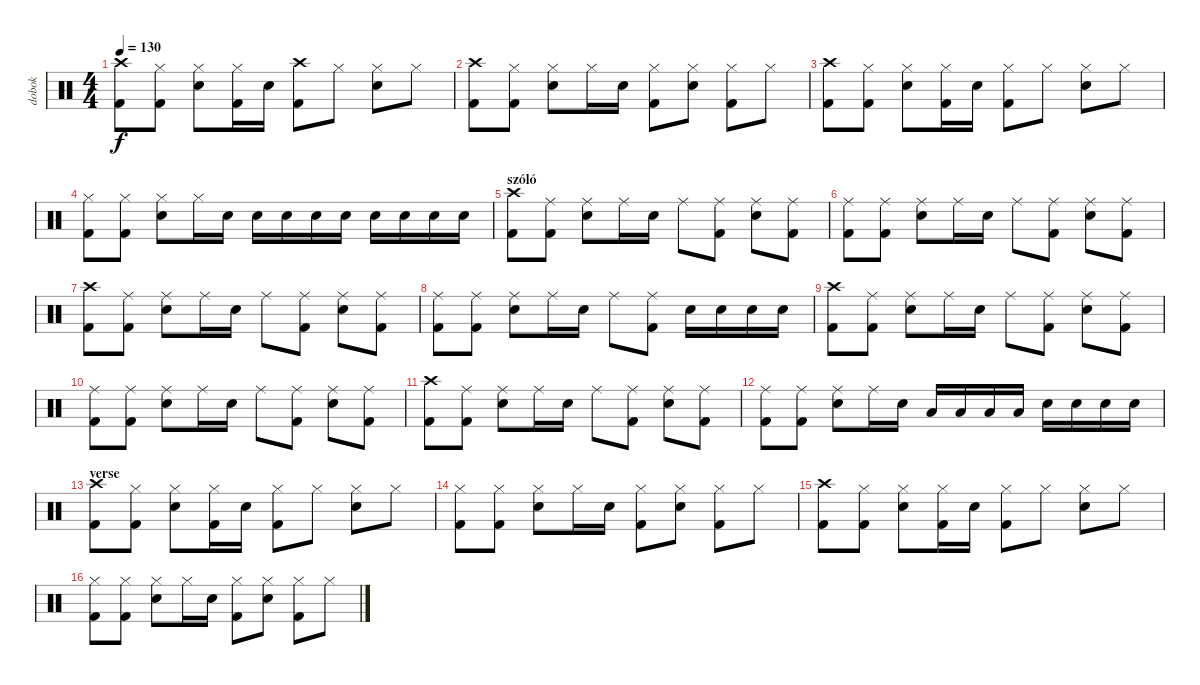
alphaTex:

\track ("dobok" "dobok") {instrument percussion}
\staff {score}
\articulation defaults
\ts (4 4)
\tempo 130
\clef neutral
\ks c
("Crash high (hit)" "Kick (hit) 2").8{dy f} ("Hi-Hat (closed)" "Kick (hit) 2").8 ("Hi-Hat (closed)" "Snare (hit) 2").8 ("Hi-Hat (closed)" "Kick (hit) 2").16 "Snare (hit) 2".16 ("Crash high (hit)" "Kick (hit) 2").8 "Hi-Hat (closed)".8 ("Hi-Hat (closed)" "Snare (hit) 2").8 "Hi-Hat (closed)".8 |
("Crash high (hit)" "Kick (hit) 2").8 ("Hi-Hat (closed)" "Kick (hit) 2").8 ("Hi-Hat (closed)" "Snare (hit) 2").8 "Hi-Hat (closed)".16 "Snare (hit) 2".16 ("Hi-Hat (closed)" "Kick (hit) 2").8 ("Hi-Hat (closed)" "Snare (hit) 2").8 ("Hi-Hat (closed)" "Kick (hit) 2").8 "Hi-Hat (closed)".8 |
("Crash high (hit)" "Kick (hit) 2").8 ("Hi-Hat (closed)" "Kick (hit) 2").8 ("Hi-Hat (closed)" "Snare (hit) 2").8 ("Hi-Hat (closed)" "Kick (hit) 2").16 "Snare (hit) 2".16 ("Hi-Hat (closed)" "Kick (hit) 2").8 "Hi-Hat (closed)".8 ("Hi-Hat (closed)" "Snare (hit) 2").8 "Hi-Hat (closed)".8 |
("Hi-Hat (closed)" "Kick (hit) 2").8 ("Hi-Hat (closed)" "Kick (hit) 2").8 ("Hi-Hat (closed)" "Snare (hit) 2").8 "Hi-Hat (closed)".16 "Snare (hit) 2".16 "Snare (hit) 2".16 "Snare (hit) 2".16 "Snare (hit) 2".16 "Snare (hit) 2".16 "Snare (hit) 2".16 "Snare (hit) 2".16 "Snare (hit) 2".16 "Snare (hit) 2".16 |
\section ("" "szóló")
("Crash high (hit)" "Kick (hit) 2").8 ("Ride (middle)" "Kick (hit) 2").8 ("Ride (middle)" "Snare (hit) 2").8 "Ride (middle)".16 "Snare (hit) 2".16 "Ride (middle)".8 ("Ride (middle)" "Kick (hit) 2").8 ("Ride (middle)" "Snare (hit) 2").8 ("Ride (middle)" "Kick (hit) 2").8 |
("Ride (middle)" "Kick (hit) 2").8 ("Ride (middle)" "Kick (hit) 2").8 ("Ride (middle)" "Snare (hit) 2").8 "Ride (middle)".16 "Snare (hit) 2".16 "Ride (middle)".8 ("Ride (middle)" "Kick (hit) 2").8 ("Ride (middle)" "Snare (hit) 2").8 ("Ride (middle)" "Kick (hit) 2").8 |
("Crash high (hit)" "Kick (hit) 2").8 ("Ride (middle)" "Kick (hit) 2").8 ("Ride (middle)" "Snare (hit) 2").8 "Ride (middle)".16 "Snare (hit) 2".16 "Ride (middle)".8 ("Ride (middle)" "Kick (hit) 2").8 ("Ride (middle)" "Snare (hit) 2").8 ("Ride (middle)" "Kick (hit) 2").8 |
("Ride (middle)" "Kick (hit) 2").8 ("Ride (middle)" "Kick (hit) 2").8 ("Ride (middle)" "Snare (hit) 2").8 "Ride (middle)".16 "Snare (hit) 2".16 "Ride (middle)".8 ("Ride (middle)" "Kick (hit) 2").8 "Snare (hit) 2".16 "Snare (hit) 2".16 "Snare (hit) 2".16 "Snare (hit) 2".16 |
("Crash high (hit)" "Kick (hit) 2").8 ("Ride (middle)" "Kick (hit) 2").8 ("Ride (middle)" "Snare (hit) 2").8 "Ride (middle)".16 "Snare (hit) 2".16 "Ride (middle)".8 ("Ride (middle)" "Kick (hit) 2").8 ("Ride (middle)" "Snare (hit) 2").8 ("Ride (middle)" "Kick (hit) 2").8 |
("Ride (middle)" "Kick (hit) 2").8 ("Ride (middle)" "Kick (hit) 2").8 ("Ride (middle)" "Snare (hit) 2").8 "Ride (middle)".16 "Snare (hit) 2".16 "Ride (middle)".8 ("Ride (middle)" "Kick (hit) 2").8 ("Ride (middle)" "Snare (hit) 2").8 ("Ride (middle)" "Kick (hit) 2").8 |
("Crash high (hit)" "Kick (hit) 2").8 ("Ride (middle)" "Kick (hit) 2").8 ("Ride (middle)" "Snare (hit) 2").8 "Ride (middle)".16 "Snare (hit) 2".16 "Ride (middle)".8 ("Ride (middle)" "Kick (hit) 2").8 ("Ride (middle)" "Snare (hit) 2").8 ("Ride (middle)" "Kick (hit) 2").8 |
("Ride (middle)" "Kick (hit) 2").8 ("Ride (middle)" "Kick (hit) 2").8 ("Ride (middle)" "Snare (hit) 2").8 "Ride (middle)".16 "Snare (hit) 2".16 "Low Floor Tom (hit)".16 "Low Floor Tom (hit)".16 "Low Tom (hit)".16 "Low Tom (hit)".16 "Snare (hit) 2".16 "Snare (hit) 2".16 "Snare (hit) 2".16 "Snare (hit) 2".16 |
\section ("" "verse")
("Crash high (hit)" "Kick (hit) 2").8 ("Hi-Hat (closed)" "Kick (hit) 2").8 ("Hi-Hat (closed)" "Snare (hit) 2").8 ("Hi-Hat (closed)" "Kick (hit) 2").16 "Snare (hit) 2".16 ("Hi-Hat (closed)" "Kick (hit) 2").8 "Hi-Hat (closed)".8 ("Hi-Hat (closed)" "Snare (hit) 2").8 "Hi-Hat (closed)".8 |
("Hi-Hat (closed)" "Kick (hit) 2").8 ("Hi-Hat (closed)" "Kick (hit) 2").8 ("Hi-Hat (closed)" "Snare (hit) 2").8 "Hi-Hat (closed)".16 "Snare (hit) 2".16 ("Hi-Hat (closed)" "Kick (hit) 2").8 ("Hi-Hat (closed)" "Snare (hit) 2").8 ("Hi-Hat (closed)" "Kick (hit) 2").8 "Hi-Hat (closed)".8 |
("Crash high (hit)" "Kick (hit) 2").8 ("Hi-Hat (closed)" "Kick (hit) 2").8 ("Hi-Hat (closed)" "Snare (hit) 2").8 ("Hi-Hat (closed)" "Kick (hit) 2").16 "Snare (hit) 2".16 ("Hi-Hat (closed)" "Kick (hit) 2").8 "Hi-Hat (closed)".8 ("Hi-Hat (closed)" "Snare (hit) 2").8 "Hi-Hat (closed)".8 |
("Hi-Hat (closed)" "Kick (hit) 2").8 ("Hi-Hat (closed)" "Kick (hit) 2").8 ("Hi-Hat (closed)" "Snare (hit) 2").8 "Hi-Hat (closed)".16 "Snare (hit) 2".16 ("Hi-Hat (closed)" "Kick (hit) 2").8 ("Hi-Hat (closed)" "Snare (hit) 2").8 ("Hi-Hat (closed)" "Kick (hit) 2").8 "Hi-Hat (closed)".8
